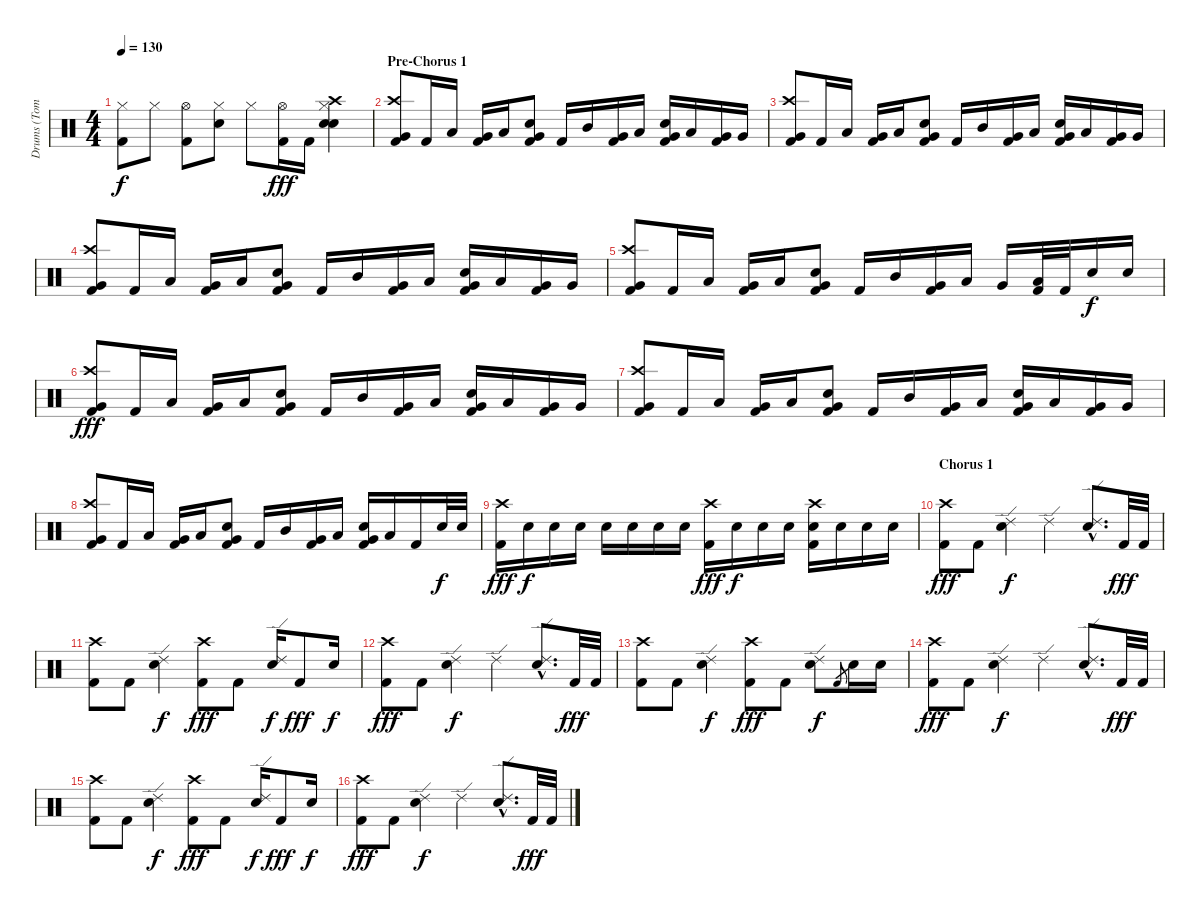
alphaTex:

\track ("Drums (Tommy Decker)" "Drums (Tom") {instrument percussion}
\staff {score}
\articulation defaults
\ts (4 4)
\tempo 130
\clef neutral
\ks c
("Hi-Hat (closed)" "Kick (hit) 2").8{dy f} "Hi-Hat (closed)".8 ("Hi-Hat (open)" "Kick (hit) 2").8 ("Hi-Hat (closed)" "Electric Snare (hit)").8 "Hi-Hat (closed)".8 ("Hi-Hat (open)" "Kick (hit) 2").16{dy fff} "Kick (hit) 2".16 ("Hi-Hat (closed)" "Crash high (hit)" "Snare (hit) 2" "Electric Snare (hit)").4 |
\section ("" "Pre-Chorus 1")
("Crash high (hit)" "Very Low Tom (hit)" "Kick (hit) 2").8 "Kick (hit) 2".16 "Low Tom (hit)".16 ("Very Low Tom (hit)" "Kick (hit) 2").16 "Low Tom (hit)".16 ("Electric Snare (hit)" "Very Low Tom (hit)" "Kick (hit) 2").8 "Kick (hit) 2".16 "Mid Tom (hit)".16 ("Very Low Tom (hit)" "Kick (hit) 2").16 "Low Tom (hit)".16 ("Electric Snare (hit)" "Very Low Tom (hit)" "Kick (hit) 2").16 "Low Tom (hit)".16 ("Very Low Tom (hit)" "Kick (hit) 2").16 "Very Low Tom (hit)".16 |
("Crash high (hit)" "Very Low Tom (hit)" "Kick (hit) 2").8 "Kick (hit) 2".16 "Low Tom (hit)".16 ("Very Low Tom (hit)" "Kick (hit) 2").16 "Low Tom (hit)".16 ("Electric Snare (hit)" "Very Low Tom (hit)" "Kick (hit) 2").8 "Kick (hit) 2".16 "Mid Tom (hit)".16 ("Very Low Tom (hit)" "Kick (hit) 2").16 "Low Tom (hit)".16 ("Electric Snare (hit)" "Very Low Tom (hit)" "Kick (hit) 2").16 "Low Tom (hit)".16 ("Very Low Tom (hit)" "Kick (hit) 2").16 "Very Low Tom (hit)".16 |
("Crash high (hit)" "Very Low Tom (hit)" "Kick (hit) 2").8 "Kick (hit) 2".16 "Low Tom (hit)".16 ("Very Low Tom (hit)" "Kick (hit) 2").16 "Low Tom (hit)".16 ("Electric Snare (hit)" "Very Low Tom (hit)" "Kick (hit) 2").8 "Kick (hit) 2".16 "Mid Tom (hit)".16 ("Very Low Tom (hit)" "Kick (hit) 2").16 "Low Tom (hit)".16 ("Electric Snare (hit)" "Very Low Tom (hit)" "Kick (hit) 2").16 "Low Tom (hit)".16 ("Very Low Tom (hit)" "Kick (hit) 2").16 "Very Low Tom (hit)".16 |
("Crash high (hit)" "Very Low Tom (hit)" "Kick (hit) 2").8 "Kick (hit) 2".16 "Low Tom (hit)".16 ("Very Low Tom (hit)" "Kick (hit) 2").16 "Low Tom (hit)".16 ("Electric Snare (hit)" "Very Low Tom (hit)" "Kick (hit) 2").8 "Kick (hit) 2".16 "Mid Tom (hit)".16 ("Very Low Tom (hit)" "Kick (hit) 2").16 "Low Tom (hit)".16 "Very Low Tom (hit)".16 ("Low Tom (hit)" "Kick (hit) 2").32 "Kick (hit) 2".32 "Electric Snare (hit)".16{dy f} "Electric Snare (hit)".16 |
("Crash high (hit)" "Very Low Tom (hit)" "Kick (hit) 2").8{dy fff} "Kick (hit) 2".16 "Low Tom (hit)".16 ("Very Low Tom (hit)" "Kick (hit) 2").16 "Low Tom (hit)".16 ("Electric Snare (hit)" "Very Low Tom (hit)" "Kick (hit) 2").8 "Kick (hit) 2".16 "Mid Tom (hit)".16 ("Very Low Tom (hit)" "Kick (hit) 2").16 "Low Tom (hit)".16 ("Electric Snare (hit)" "Very Low Tom (hit)" "Kick (hit) 2").16 "Low Tom (hit)".16 ("Very Low Tom (hit)" "Kick (hit) 2").16 "Very Low Tom (hit)".16 |
("Crash high (hit)" "Very Low Tom (hit)" "Kick (hit) 2").8 "Kick (hit) 2".16 "Low Tom (hit)".16 ("Very Low Tom (hit)" "Kick (hit) 2").16 "Low Tom (hit)".16 ("Electric Snare (hit)" "Very Low Tom (hit)" "Kick (hit) 2").8 "Kick (hit) 2".16 "Mid Tom (hit)".16 ("Very Low Tom (hit)" "Kick (hit) 2").16 "Low Tom (hit)".16 ("Electric Snare (hit)" "Very Low Tom (hit)" "Kick (hit) 2").16 "Low Tom (hit)".16 ("Very Low Tom (hit)" "Kick (hit) 2").16 "Very Low Tom (hit)".16 |
("Crash high (hit)" "Very Low Tom (hit)" "Kick (hit) 2").8 "Kick (hit) 2".16 "Low Tom (hit)".16 ("Very Low Tom (hit)" "Kick (hit) 2").16 "Low Tom (hit)".16 ("Electric Snare (hit)" "Very Low Tom (hit)" "Kick (hit) 2").8 "Kick (hit) 2".16 "Mid Tom (hit)".16 ("Very Low Tom (hit)" "Kick (hit) 2").16 "Low Tom (hit)".16 ("Electric Snare (hit)" "Very Low Tom (hit)" "Kick (hit) 2").16 "Low Tom (hit)".16 "Kick (hit) 2".16 "Electric Snare (hit)".32{dy f} "Electric Snare (hit)".32 |
("Crash high (hit)" "Kick (hit) 2").16{dy fff} "Electric Snare (hit)".16{dy f} "Electric Snare (hit)".16 "Electric Snare (hit)".16 "Electric Snare (hit)".16 "Electric Snare (hit)".16 "Electric Snare (hit)".16 "Electric Snare (hit)".16 ("Crash high (hit)" "Kick (hit) 2").16{dy fff} "Electric Snare (hit)".16{dy f} "Electric Snare (hit)".16 "Electric Snare (hit)".16 ("Crash high (hit)" "Electric Snare (hit)" "Kick (hit) 2").16 "Electric Snare (hit)".16 "Electric Snare (hit)".16 "Electric Snare (hit)".16 |
\section ("" "Chorus 1")
("Crash high (hit)" "Kick (hit) 2").8{dy fff} "Kick (hit) 2".8 ("Ride (edge) 2" "Electric Snare (hit)").4{dy f} "Ride (edge) 2".4 ("Ride (edge) 2"{hac} "Electric Snare (hit)"{hac}).8{d} "Kick (hit) 2".32{dy fff} "Kick (hit) 2".32 |
("Crash high (hit)" "Kick (hit) 2").8 "Kick (hit) 2".8 ("Ride (edge) 2" "Electric Snare (hit)").4{dy f} ("Crash high (hit)" "Kick (hit) 2").8{dy fff} "Kick (hit) 2".8 ("Ride (edge) 2" "Electric Snare (hit)").16{dy f} "Kick (hit) 2".8{dy fff} "Electric Snare (hit)".16{dy f} |
("Crash high (hit)" "Kick (hit) 2").8{dy fff} "Kick (hit) 2".8 ("Ride (edge) 2" "Electric Snare (hit)").4{dy f} "Ride (edge) 2".4 ("Ride (edge) 2"{hac} "Electric Snare (hit)"{hac}).8{d} "Kick (hit) 2".32{dy fff} "Kick (hit) 2".32 |
("Crash high (hit)" "Kick (hit) 2").8 "Kick (hit) 2".8 ("Ride (edge) 2" "Electric Snare (hit)").4{dy f} ("Crash high (hit)" "Kick (hit) 2").8{dy fff} "Kick (hit) 2".8 ("Ride (edge) 2" "Electric Snare (hit)").8{dy f} "Kick (hit) 2".8{gr} "Electric Snare (hit)".16 "Electric Snare (hit)".16 |
("Crash high (hit)" "Kick (hit) 2").8{dy fff} "Kick (hit) 2".8 ("Ride (edge) 2" "Electric Snare (hit)").4{dy f} "Ride (edge) 2".4 ("Ride (edge) 2"{hac} "Electric Snare (hit)"{hac}).8{d} "Kick (hit) 2".32{dy fff} "Kick (hit) 2".32 |
("Crash high (hit)" "Kick (hit) 2").8 "Kick (hit) 2".8 ("Ride (edge) 2" "Electric Snare (hit)").4{dy f} ("Crash high (hit)" "Kick (hit) 2").8{dy fff} "Kick (hit) 2".8 ("Ride (edge) 2" "Electric Snare (hit)").16{dy f} "Kick (hit) 2".8{dy fff} "Electric Snare (hit)".16{dy f} |
("Crash high (hit)" "Kick (hit) 2").8{dy fff} "Kick (hit) 2".8 ("Ride (edge) 2" "Electric Snare (hit)").4{dy f} "Ride (edge) 2".4 ("Ride (edge) 2"{hac} "Electric Snare (hit)"{hac}).8{d} "Kick (hit) 2".32{dy fff} "Kick (hit) 2".32
